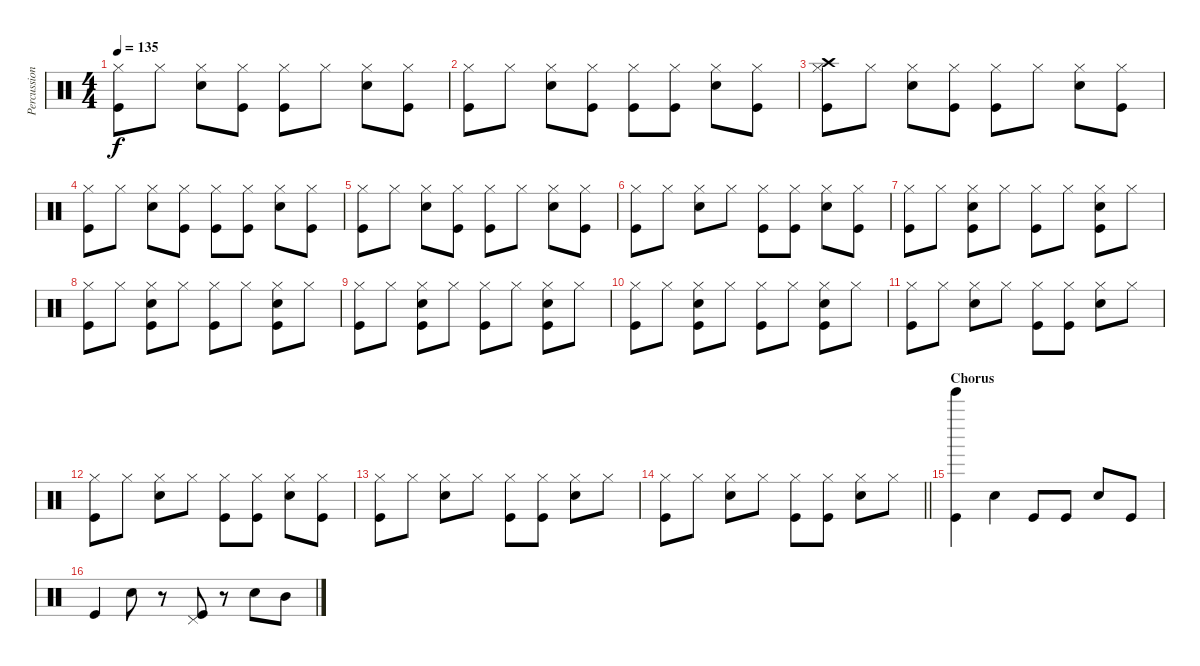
\track ("Percussion - Mark Gajadhar" "Percussion") {instrument percussion}
\staff {score}
\articulation defaults
\ts (4 4)
\tempo 135
\clef neutral
\ks c
("Hi-Hat (closed)" "Kick (hit)").8{dy f} "Hi-Hat (closed)".8 ("Snare (hit) 2" "Hi-Hat (closed)").8 ("Hi-Hat (closed)" "Kick (hit)").8 ("Hi-Hat (closed)" "Kick (hit)").8 "Hi-Hat (closed)".8 ("Snare (hit) 2" "Hi-Hat (closed)").8 ("Hi-Hat (closed)" "Kick (hit)").8 |
("Hi-Hat (closed)" "Kick (hit)").8 "Hi-Hat (closed)".8 ("Snare (hit) 2" "Hi-Hat (closed)").8 ("Hi-Hat (closed)" "Kick (hit)").8 ("Hi-Hat (closed)" "Kick (hit)").8 ("Hi-Hat (closed)" "Kick (hit)").8 ("Snare (hit) 2" "Hi-Hat (closed)").8 ("Hi-Hat (closed)" "Kick (hit)").8 |
("Crash high (hit)" "Hi-Hat (closed)" "Kick (hit)").8 "Hi-Hat (closed)".8 ("Snare (hit) 2" "Hi-Hat (closed)").8 ("Hi-Hat (closed)" "Kick (hit)").8 ("Hi-Hat (closed)" "Kick (hit)").8 "Hi-Hat (closed)".8 ("Snare (hit) 2" "Hi-Hat (closed)").8 ("Hi-Hat (closed)" "Kick (hit)").8 |
("Hi-Hat (closed)" "Kick (hit)").8 "Hi-Hat (closed)".8 ("Snare (hit) 2" "Hi-Hat (closed)").8 ("Hi-Hat (closed)" "Kick (hit)").8 ("Hi-Hat (closed)" "Kick (hit)").8 ("Hi-Hat (closed)" "Kick (hit)").8 ("Snare (hit) 2" "Hi-Hat (closed)").8 ("Hi-Hat (closed)" "Kick (hit)").8 |
("Hi-Hat (closed)" "Kick (hit)").8 "Hi-Hat (closed)".8 ("Snare (hit) 2" "Hi-Hat (closed)").8 ("Hi-Hat (closed)" "Kick (hit)").8 ("Hi-Hat (closed)" "Kick (hit)").8 "Hi-Hat (closed)".8 ("Snare (hit) 2" "Hi-Hat (closed)").8 ("Hi-Hat (closed)" "Kick (hit)").8 |
("Hi-Hat (closed)" "Kick (hit)").8 "Hi-Hat (closed)".8 ("Snare (hit) 2" "Hi-Hat (closed)").8 "Hi-Hat (closed)".8 ("Hi-Hat (closed)" "Kick (hit)").8 ("Hi-Hat (closed)" "Kick (hit)").8 ("Snare (hit) 2" "Hi-Hat (closed)").8 ("Hi-Hat (closed)" "Kick (hit)").8 |
("Hi-Hat (closed)" "Kick (hit)").8 "Hi-Hat (closed)".8 ("Snare (hit) 2" "Hi-Hat (closed)" "Kick (hit)").8 "Hi-Hat (closed)".8 ("Hi-Hat (closed)" "Kick (hit)").8 "Hi-Hat (closed)".8 ("Snare (hit) 2" "Hi-Hat (closed)" "Kick (hit)").8 "Hi-Hat (closed)".8 |
("Hi-Hat (closed)" "Kick (hit)").8 "Hi-Hat (closed)".8 ("Snare (hit) 2" "Hi-Hat (closed)" "Kick (hit)").8 "Hi-Hat (closed)".8 ("Hi-Hat (closed)" "Kick (hit)").8 "Hi-Hat (closed)".8 ("Snare (hit) 2" "Hi-Hat (closed)" "Kick (hit)").8 "Hi-Hat (closed)".8 |
("Hi-Hat (closed)" "Kick (hit)").8 "Hi-Hat (closed)".8 ("Snare (hit) 2" "Hi-Hat (closed)" "Kick (hit)").8 "Hi-Hat (closed)".8 ("Hi-Hat (closed)" "Kick (hit)").8 "Hi-Hat (closed)".8 ("Snare (hit) 2" "Hi-Hat (closed)" "Kick (hit)").8 "Hi-Hat (closed)".8 |
("Hi-Hat (closed)" "Kick (hit)").8 "Hi-Hat (closed)".8 ("Snare (hit) 2" "Hi-Hat (closed)" "Kick (hit)").8 "Hi-Hat (closed)".8 ("Hi-Hat (closed)" "Kick (hit)").8 "Hi-Hat (closed)".8 ("Snare (hit) 2" "Hi-Hat (closed)" "Kick (hit)").8 "Hi-Hat (closed)".8 |
("Hi-Hat (closed)" "Kick (hit)").8 "Hi-Hat (closed)".8 ("Snare (hit) 2" "Hi-Hat (closed)").8 "Hi-Hat (closed)".8 ("Hi-Hat (closed)" "Kick (hit)").8 ("Hi-Hat (closed)" "Kick (hit)").8 ("Snare (hit) 2" "Hi-Hat (closed)").8 "Hi-Hat (closed)".8 |
("Hi-Hat (closed)" "Kick (hit)").8 "Hi-Hat (closed)".8 ("Snare (hit) 2" "Hi-Hat (closed)").8 "Hi-Hat (closed)".8 ("Hi-Hat (closed)" "Kick (hit)").8 ("Hi-Hat (closed)" "Kick (hit)").8 ("Snare (hit) 2" "Hi-Hat (closed)").8 ("Hi-Hat (closed)" "Kick (hit)").8 |
("Hi-Hat (closed)" "Kick (hit)").8 "Hi-Hat (closed)".8 ("Snare (hit) 2" "Hi-Hat (closed)").8 "Hi-Hat (closed)".8 ("Hi-Hat (closed)" "Kick (hit)").8 ("Hi-Hat (closed)" "Kick (hit)").8 ("Snare (hit) 2" "Hi-Hat (closed)").8 "Hi-Hat (closed)".8 |
\barLineRight lightlight
("Hi-Hat (closed)" "Kick (hit)").8 "Hi-Hat (closed)".8 ("Snare (hit) 2" "Hi-Hat (closed)").8 "Hi-Hat (closed)".8 ("Hi-Hat (closed)" "Kick (hit)").8 ("Hi-Hat (closed)" "Kick (hit)").8 ("Snare (hit) 2" "Hi-Hat (closed)").8 "Hi-Hat (closed)".8 |
\section ("" "Chorus")
("Tinkle Bell (hit)" "Kick (hit)").4 "Snare (hit) 2".4 "Kick (hit)".8 "Kick (hit)".8 "Snare (hit) 2".8 "Kick (hit)".8 |
"Kick (hit)".4 "Snare (hit) 2".8 r.8 ("Kick (hit)" "Pedal Hi-Hat (hit)").8 r.8 "Snare (hit) 2".8 "Mid Tom (hit)".8
